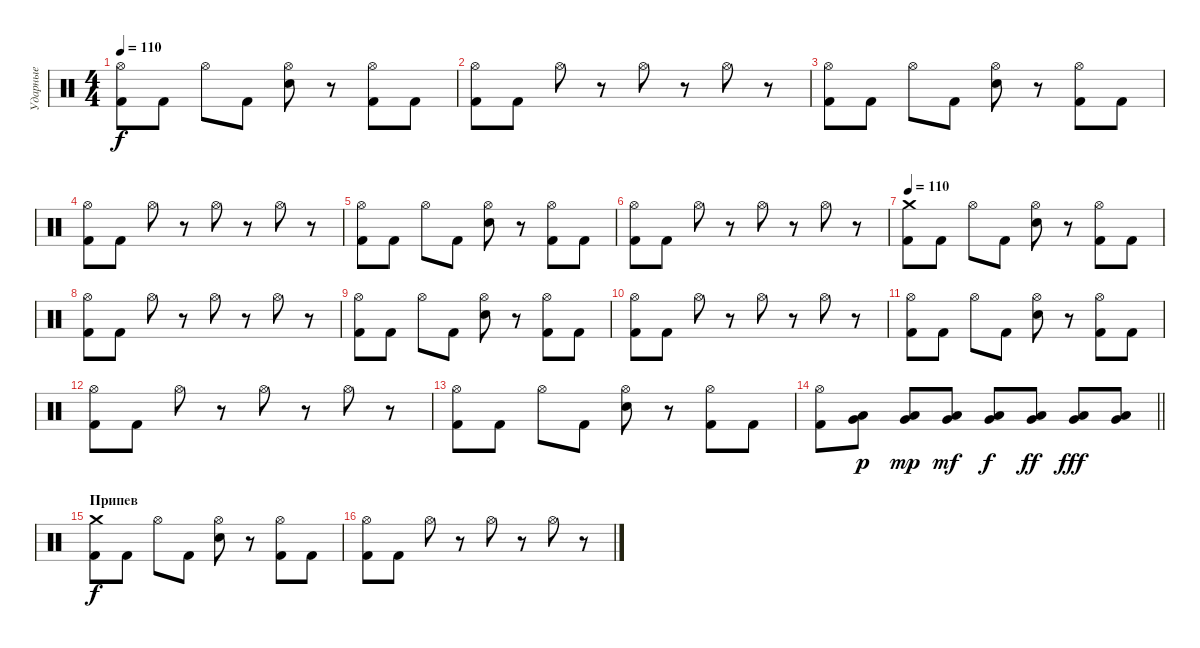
\track ("Ударные" "Ударные") {instrument percussion}
\staff {score}
\articulation defaults
\ts (4 4)
\tempo 110
\clef neutral
\ks c
("Hi-Hat (open)" "Kick (hit) 2").8{dy f} "Kick (hit) 2".8 "Hi-Hat (open)".8 "Kick (hit) 2".8 ("Hi-Hat (open)" "Electric Snare (hit)").8 r.8 ("Hi-Hat (open)" "Kick (hit) 2").8 "Kick (hit) 2".8 |
("Hi-Hat (open)" "Kick (hit) 2").8 "Kick (hit) 2".8 "Hi-Hat (open)".8 r.8 "Hi-Hat (open)".8 r.8 "Hi-Hat (open)".8 r.8 |
("Hi-Hat (open)" "Kick (hit) 2").8 "Kick (hit) 2".8 "Hi-Hat (open)".8 "Kick (hit) 2".8 ("Hi-Hat (open)" "Electric Snare (hit)").8 r.8 ("Hi-Hat (open)" "Kick (hit) 2").8 "Kick (hit) 2".8 |
("Hi-Hat (open)" "Kick (hit) 2").8 "Kick (hit) 2".8 "Hi-Hat (open)".8 r.8 "Hi-Hat (open)".8 r.8 "Hi-Hat (open)".8 r.8 |
("Hi-Hat (open)" "Kick (hit) 2").8 "Kick (hit) 2".8 "Hi-Hat (open)".8 "Kick (hit) 2".8 ("Hi-Hat (open)" "Electric Snare (hit)").8 r.8 ("Hi-Hat (open)" "Kick (hit) 2").8 "Kick (hit) 2".8 |
("Hi-Hat (open)" "Kick (hit) 2").8 "Kick (hit) 2".8 "Hi-Hat (open)".8 r.8 "Hi-Hat (open)".8 r.8 "Hi-Hat (open)".8 r.8 |
\tempo 110
("Crash medium (hit)" "Kick (hit) 2").8 "Kick (hit) 2".8 "Hi-Hat (open)".8 "Kick (hit) 2".8 ("Hi-Hat (open)" "Electric Snare (hit)").8 r.8 ("Hi-Hat (open)" "Kick (hit) 2").8 "Kick (hit) 2".8 |
("Hi-Hat (open)" "Kick (hit) 2").8 "Kick (hit) 2".8 "Hi-Hat (open)".8 r.8 "Hi-Hat (open)".8 r.8 "Hi-Hat (open)".8 r.8 |
("Hi-Hat (open)" "Kick (hit) 2").8 "Kick (hit) 2".8 "Hi-Hat (open)".8 "Kick (hit) 2".8 ("Hi-Hat (open)" "Electric Snare (hit)").8 r.8 ("Hi-Hat (open)" "Kick (hit) 2").8 "Kick (hit) 2".8 |
("Hi-Hat (open)" "Kick (hit) 2").8 "Kick (hit) 2".8 "Hi-Hat (open)".8 r.8 "Hi-Hat (open)".8 r.8 "Hi-Hat (open)".8 r.8 |
("Hi-Hat (open)" "Kick (hit) 2").8 "Kick (hit) 2".8 "Hi-Hat (open)".8 "Kick (hit) 2".8 ("Hi-Hat (open)" "Electric Snare (hit)").8 r.8 ("Hi-Hat (open)" "Kick (hit) 2").8 "Kick (hit) 2".8 |
("Hi-Hat (open)" "Kick (hit) 2").8 "Kick (hit) 2".8 "Hi-Hat (open)".8 r.8 "Hi-Hat (open)".8 r.8 "Hi-Hat (open)".8 r.8 |
("Hi-Hat (open)" "Kick (hit) 2").8 "Kick (hit) 2".8 "Hi-Hat (open)".8 "Kick (hit) 2".8 ("Hi-Hat (open)" "Electric Snare (hit)").8 r.8 ("Hi-Hat (open)" "Kick (hit) 2").8 "Kick (hit) 2".8 |
\barLineRight lightlight
("Hi-Hat (open)" "Kick (hit) 2").8 ("Very Low Tom (hit)" "Low Floor Tom (hit)").8{dy p} ("Very Low Tom (hit)" "Low Floor Tom (hit)").8{dy mp} ("Very Low Tom (hit)" "Low Floor Tom (hit)").8{dy mf} ("Very Low Tom (hit)" "Low Floor Tom (hit)").8{dy f} ("Very Low Tom (hit)" "Low Floor Tom (hit)").8{dy ff} ("Very Low Tom (hit)" "Low Floor Tom (hit)").8{dy fff} ("Very Low Tom (hit)" "Low Floor Tom (hit)").8 |
\section ("" "Припев")
("Crash medium (hit)" "Kick (hit) 2").8{dy f} "Kick (hit) 2".8 "Hi-Hat (open)".8 "Kick (hit) 2".8 ("Hi-Hat (open)" "Electric Snare (hit)").8 r.8 ("Hi-Hat (open)" "Kick (hit) 2").8 "Kick (hit) 2".8 |
("Hi-Hat (open)" "Kick (hit) 2").8 "Kick (hit) 2".8 "Hi-Hat (open)".8 r.8 "Hi-Hat (open)".8 r.8 "Hi-Hat (open)".8 r.8
